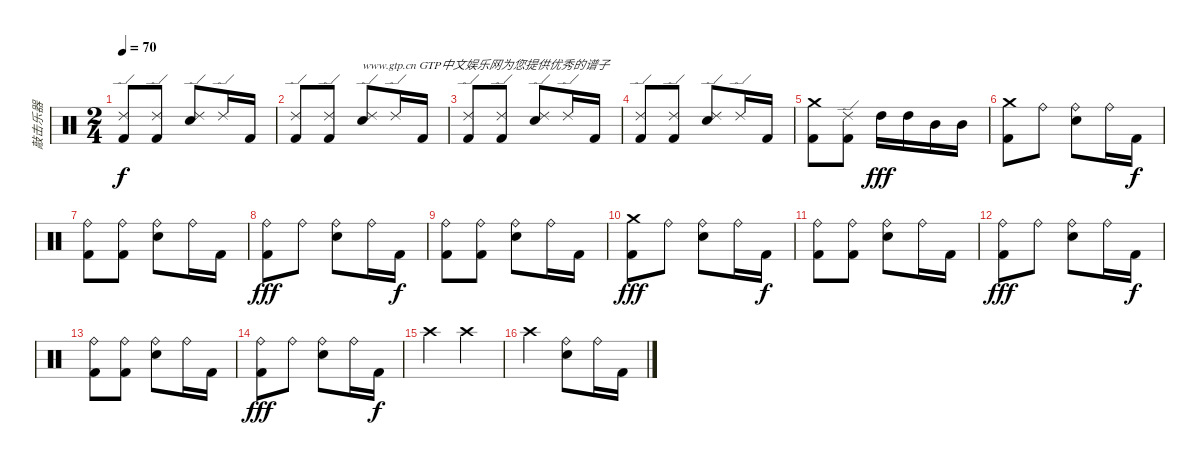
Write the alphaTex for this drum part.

\track ("敲击乐器" "敲击乐器") {instrument percussion}
\staff {score}
\articulation defaults
\ts (2 4)
\tempo 70
\clef neutral
\ks c
("Ride (edge) 2" "Kick (hit) 2").8{dy f} ("Ride (edge) 2" "Kick (hit) 2").8 ("Ride (edge) 2" "Snare (hit) 2").8 "Ride (edge) 2".16 "Kick (hit) 2".16 |
("Ride (edge) 2" "Kick (hit) 2").8 ("Ride (edge) 2" "Kick (hit) 2").8 ("Ride (edge) 2" "Snare (hit) 2").8{txt "www.gtp.cn GTP中文娱乐网为您提供优秀的谱子"} "Ride (edge) 2".16 "Kick (hit) 2".16 |
("Ride (edge) 2" "Kick (hit) 2").8 ("Ride (edge) 2" "Kick (hit) 2").8 ("Ride (edge) 2" "Snare (hit) 2").8 "Ride (edge) 2".16 "Kick (hit) 2".16 |
("Ride (edge) 2" "Kick (hit) 2").8 ("Ride (edge) 2" "Kick (hit) 2").8 ("Ride (edge) 2" "Snare (hit) 2").8 "Ride (edge) 2".16 "Kick (hit) 2".16 |
("Crash medium (hit)" "Kick (hit) 2").8 ("Ride (edge) 2" "Kick (hit) 2").8 "High Tom (hit)".16{dy fff} "High Tom (hit)".16 "Mid Tom (hit)".16 "Mid Tom (hit)".16 |
("Crash medium (hit)" "Kick (hit) 2").8 "Ride (bell)".8 ("Ride (bell)" "Snare (hit) 2").8 "Ride (bell)".16 "Kick (hit) 2".16{dy f} |
("Ride (bell)" "Kick (hit) 2").8 ("Ride (bell)" "Kick (hit) 2").8 ("Ride (bell)" "Snare (hit) 2").8 "Ride (bell)".16 "Kick (hit) 2".16 |
("Ride (bell)" "Kick (hit) 2").8{dy fff} "Ride (bell)".8 ("Ride (bell)" "Snare (hit) 2").8 "Ride (bell)".16 "Kick (hit) 2".16{dy f} |
("Ride (bell)" "Kick (hit) 2").8 ("Ride (bell)" "Kick (hit) 2").8 ("Ride (bell)" "Snare (hit) 2").8 "Ride (bell)".16 "Kick (hit) 2".16 |
("Crash medium (hit)" "Kick (hit) 2").8{dy fff} "Ride (bell)".8 ("Ride (bell)" "Snare (hit) 2").8 "Ride (bell)".16 "Kick (hit) 2".16{dy f} |
("Ride (bell)" "Kick (hit) 2").8 ("Ride (bell)" "Kick (hit) 2").8 ("Ride (bell)" "Snare (hit) 2").8 "Ride (bell)".16 "Kick (hit) 2".16 |
("Ride (bell)" "Kick (hit) 2").8{dy fff} "Ride (bell)".8 ("Ride (bell)" "Snare (hit) 2").8 "Ride (bell)".16 "Kick (hit) 2".16{dy f} |
("Ride (bell)" "Kick (hit) 2").8 ("Ride (bell)" "Kick (hit) 2").8 ("Ride (bell)" "Snare (hit) 2").8 "Ride (bell)".16 "Kick (hit) 2".16 |
("Ride (bell)" "Kick (hit) 2").8{dy fff} "Ride (bell)".8 ("Ride (bell)" "Snare (hit) 2").8 "Ride (bell)".16 "Kick (hit) 2".16{dy f} |
"Crash high (hit)".4 "Crash high (hit)".4 |
"Crash high (hit)".4 ("Ride (bell)" "Snare (hit) 2").8 "Ride (bell)".16 "Kick (hit) 2".16
